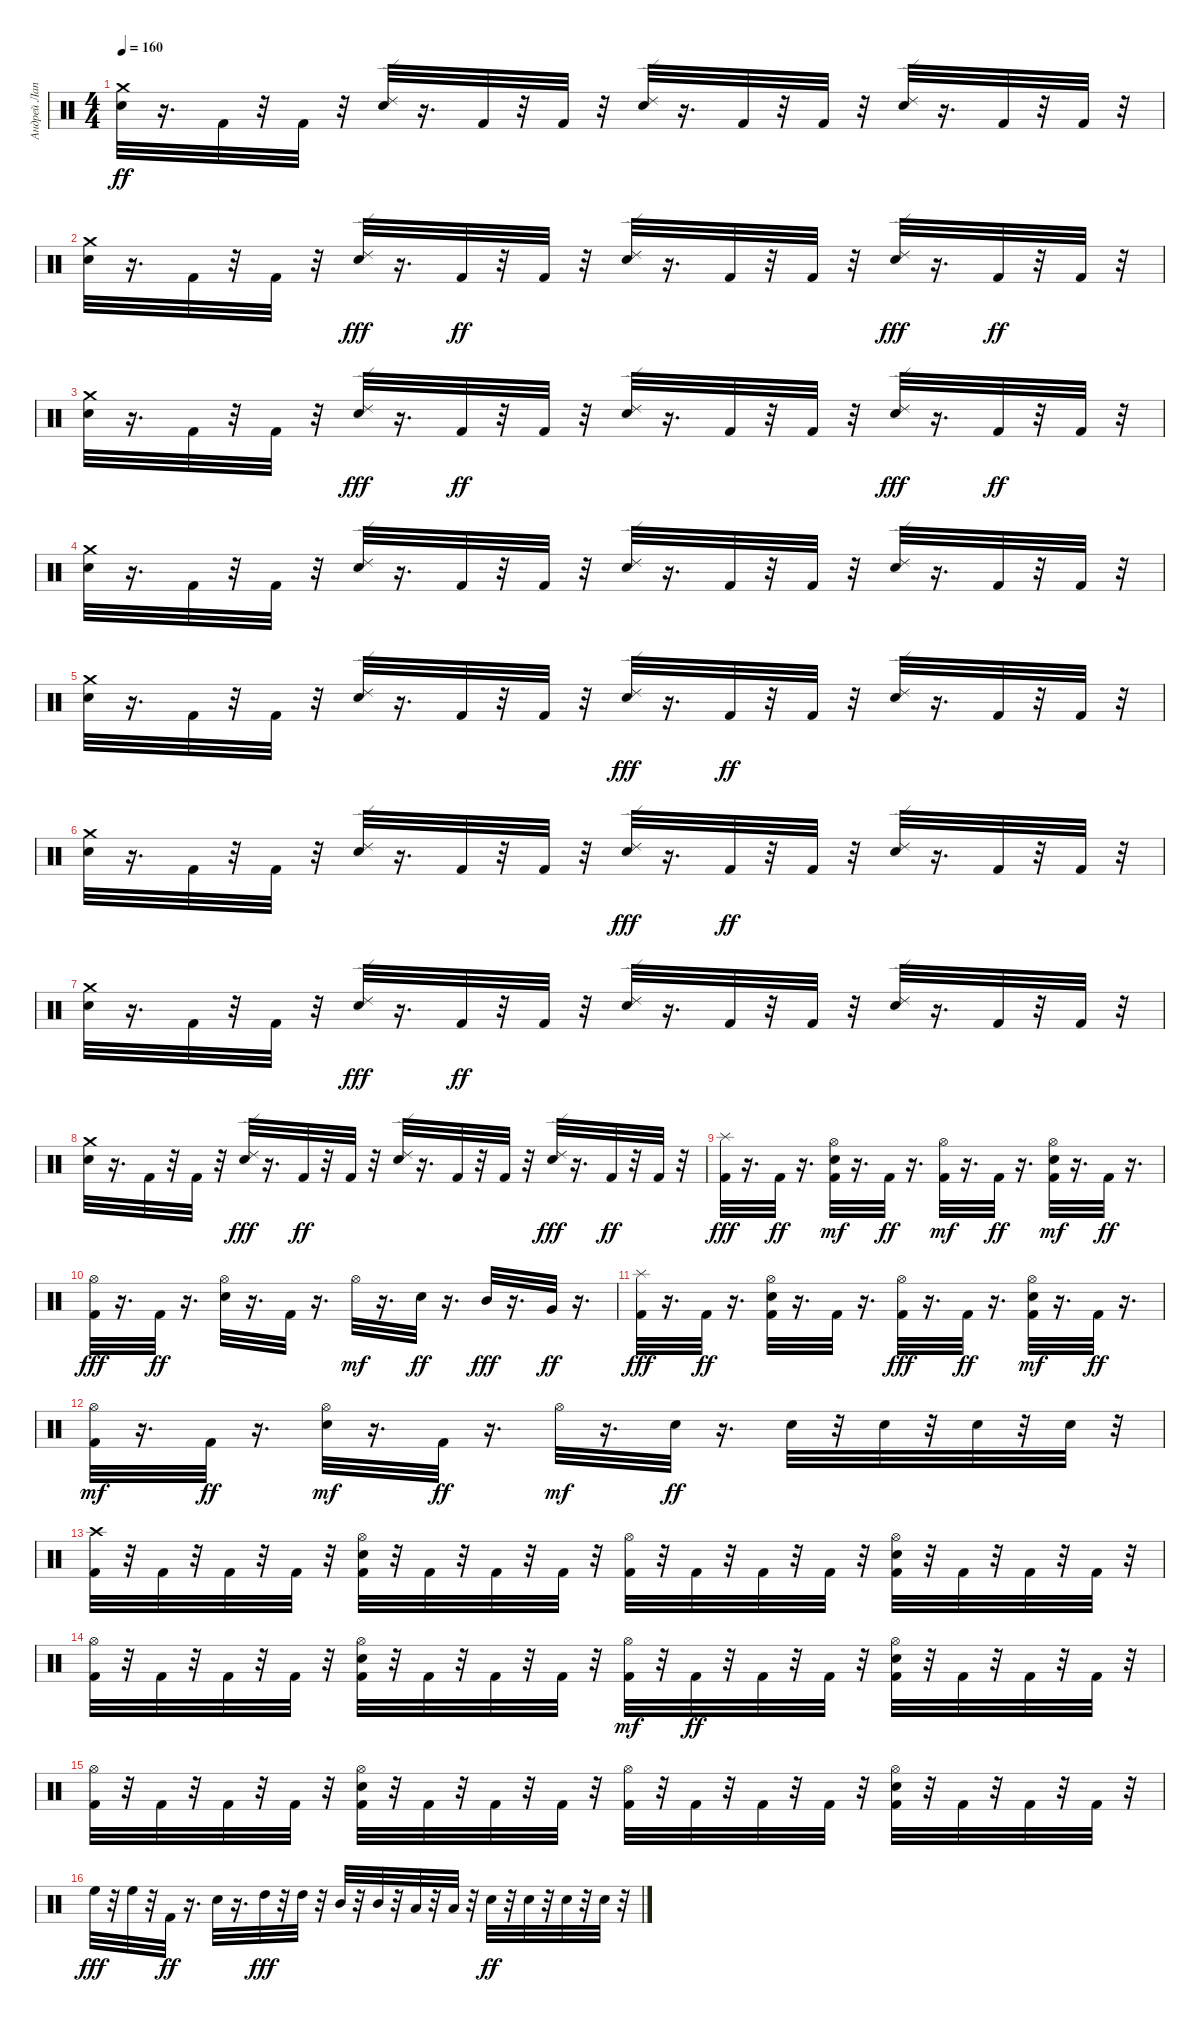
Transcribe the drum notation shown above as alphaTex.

\track ("Андрей Лаптев" "Андрей Лап") {instrument percussion}
\staff {score}
\articulation defaults
\ts (4 4)
\tempo 160
\clef neutral
\ks c
("Crash medium (hit)" "Electric Snare (hit)").32{dy ff} r.16{d} "Kick (hit) 2".32 r.32 "Kick (hit) 2".32 r.32 ("Ride (edge) 2" "Electric Snare (hit)").32 r.16{d} "Kick (hit) 2".32 r.32 "Kick (hit) 2".32 r.32 ("Ride (edge) 2" "Electric Snare (hit)").32 r.16{d} "Kick (hit) 2".32 r.32 "Kick (hit) 2".32 r.32 ("Ride (edge) 2" "Electric Snare (hit)").32 r.16{d} "Kick (hit) 2".32 r.32 "Kick (hit) 2".32 r.32 |
("Crash medium (hit)" "Electric Snare (hit)").32 r.16{d} "Kick (hit) 2".32 r.32 "Kick (hit) 2".32 r.32 ("Electric Snare (hit)" "Ride (edge) 2").32{dy fff} r.16{d} "Kick (hit) 2".32{dy ff} r.32 "Kick (hit) 2".32 r.32 ("Ride (edge) 2" "Electric Snare (hit)").32 r.16{d} "Kick (hit) 2".32 r.32 "Kick (hit) 2".32 r.32 ("Electric Snare (hit)" "Ride (edge) 2").32{dy fff} r.16{d} "Kick (hit) 2".32{dy ff} r.32 "Kick (hit) 2".32 r.32 |
("Crash medium (hit)" "Electric Snare (hit)").32 r.16{d} "Kick (hit) 2".32 r.32 "Kick (hit) 2".32 r.32 ("Electric Snare (hit)" "Ride (edge) 2").32{dy fff} r.16{d} "Kick (hit) 2".32{dy ff} r.32 "Kick (hit) 2".32 r.32 ("Ride (edge) 2" "Electric Snare (hit)").32 r.16{d} "Kick (hit) 2".32 r.32 "Kick (hit) 2".32 r.32 ("Electric Snare (hit)" "Ride (edge) 2").32{dy fff} r.16{d} "Kick (hit) 2".32{dy ff} r.32 "Kick (hit) 2".32 r.32 |
("Electric Snare (hit)" "Crash medium (hit)").32 r.16{d} "Kick (hit) 2".32 r.32 "Kick (hit) 2".32 r.32 ("Ride (edge) 2" "Electric Snare (hit)").32 r.16{d} "Kick (hit) 2".32 r.32 "Kick (hit) 2".32 r.32 ("Ride (edge) 2" "Electric Snare (hit)").32 r.16{d} "Kick (hit) 2".32 r.32 "Kick (hit) 2".32 r.32 ("Ride (edge) 2" "Electric Snare (hit)").32 r.16{d} "Kick (hit) 2".32 r.32 "Kick (hit) 2".32 r.32 |
("Electric Snare (hit)" "Crash medium (hit)").32 r.16{d} "Kick (hit) 2".32 r.32 "Kick (hit) 2".32 r.32 ("Ride (edge) 2" "Electric Snare (hit)").32 r.16{d} "Kick (hit) 2".32 r.32 "Kick (hit) 2".32 r.32 ("Electric Snare (hit)" "Ride (edge) 2").32{dy fff} r.16{d} "Kick (hit) 2".32{dy ff} r.32 "Kick (hit) 2".32 r.32 ("Ride (edge) 2" "Electric Snare (hit)").32 r.16{d} "Kick (hit) 2".32 r.32 "Kick (hit) 2".32 r.32 |
("Electric Snare (hit)" "Crash medium (hit)").32 r.16{d} "Kick (hit) 2".32 r.32 "Kick (hit) 2".32 r.32 ("Ride (edge) 2" "Electric Snare (hit)").32 r.16{d} "Kick (hit) 2".32 r.32 "Kick (hit) 2".32 r.32 ("Electric Snare (hit)" "Ride (edge) 2").32{dy fff} r.16{d} "Kick (hit) 2".32{dy ff} r.32 "Kick (hit) 2".32 r.32 ("Ride (edge) 2" "Electric Snare (hit)").32 r.16{d} "Kick (hit) 2".32 r.32 "Kick (hit) 2".32 r.32 |
("Electric Snare (hit)" "Crash medium (hit)").32 r.16{d} "Kick (hit) 2".32 r.32 "Kick (hit) 2".32 r.32 ("Electric Snare (hit)" "Ride (edge) 2").32{dy fff} r.16{d} "Kick (hit) 2".32{dy ff} r.32 "Kick (hit) 2".32 r.32 ("Ride (edge) 2" "Electric Snare (hit)").32 r.16{d} "Kick (hit) 2".32 r.32 "Kick (hit) 2".32 r.32 ("Ride (edge) 2" "Electric Snare (hit)").32 r.16{d} "Kick (hit) 2".32 r.32 "Kick (hit) 2".32 r.32 |
("Electric Snare (hit)" "Crash medium (hit)").32 r.16{d} "Kick (hit) 2".32 r.32 "Kick (hit) 2".32 r.32 ("Electric Snare (hit)" "Ride (edge) 2").32{dy fff} r.16{d} "Kick (hit) 2".32{dy ff} r.32 "Kick (hit) 2".32 r.32 ("Ride (edge) 2" "Electric Snare (hit)").32 r.16{d} "Kick (hit) 2".32 r.32 "Kick (hit) 2".32 r.32 ("Electric Snare (hit)" "Ride (edge) 2").32{dy fff} r.16{d} "Kick (hit) 2".32{dy ff} r.32 "Kick (hit) 2".32 r.32 |
("Splash (hit)" "Kick (hit) 2").32{dy fff} r.16{d} "Kick (hit) 2".32{dy ff} r.16{d} ("Kick (hit) 2" "Electric Snare (hit)" "Hi-Hat (open)").32{dy mf} r.16{d} "Kick (hit) 2".32{dy ff} r.16{d} ("Kick (hit) 2" "Hi-Hat (open)").32{dy mf} r.16{d} "Kick (hit) 2".32{dy ff} r.16{d} ("Kick (hit) 2" "Electric Snare (hit)" "Hi-Hat (open)").32{dy mf} r.16{d} "Kick (hit) 2".32{dy ff} r.16{d} |
("Hi-Hat (open)" "Kick (hit) 2").32{dy fff} r.16{d} "Kick (hit) 2".32{dy ff} r.16{d} ("Hi-Hat (open)" "Electric Snare (hit)").32 r.16{d} "Kick (hit) 2".32 r.16{d} "Hi-Hat (open)".32{dy mf} r.16{d} "Electric Snare (hit)".32{dy ff} r.16{d} "Mid Tom (hit)".32{dy fff} r.16{d} "Very Low Tom (hit)".32{dy ff} r.16{d} |
("Splash (hit)" "Kick (hit) 2").32{dy fff} r.16{d} "Kick (hit) 2".32{dy ff} r.16{d} ("Kick (hit) 2" "Hi-Hat (open)" "Electric Snare (hit)").32 r.16{d} "Kick (hit) 2".32 r.16{d} ("Hi-Hat (open)" "Kick (hit) 2").32{dy fff} r.16{d} "Kick (hit) 2".32{dy ff} r.16{d} ("Kick (hit) 2" "Electric Snare (hit)" "Hi-Hat (open)").32{dy mf} r.16{d} "Kick (hit) 2".32{dy ff} r.16{d} |
("Kick (hit) 2" "Hi-Hat (open)").32{dy mf} r.16{d} "Kick (hit) 2".32{dy ff} r.16{d} ("Electric Snare (hit)" "Hi-Hat (open)").32{dy mf} r.16{d} "Kick (hit) 2".32{dy ff} r.16{d} "Hi-Hat (open)".32{dy mf} r.16{d} "Electric Snare (hit)".32{dy ff} r.16{d} "Electric Snare (hit)".32 r.32 "Electric Snare (hit)".32 r.32 "Electric Snare (hit)".32 r.32 "Electric Snare (hit)".32 r.32 |
("Kick (hit) 2" "Crash high (hit)").32 r.32 "Kick (hit) 2".32 r.32 "Kick (hit) 2".32 r.32 "Kick (hit) 2".32 r.32 ("Electric Snare (hit)" "Hi-Hat (open)" "Kick (hit) 2").32 r.32 "Kick (hit) 2".32 r.32 "Kick (hit) 2".32 r.32 "Kick (hit) 2".32 r.32 ("Hi-Hat (open)" "Kick (hit) 2").32 r.32 "Kick (hit) 2".32 r.32 "Kick (hit) 2".32 r.32 "Kick (hit) 2".32 r.32 ("Kick (hit) 2" "Hi-Hat (open)" "Electric Snare (hit)").32 r.32 "Kick (hit) 2".32 r.32 "Kick (hit) 2".32 r.32 "Kick (hit) 2".32 r.32 |
("Hi-Hat (open)" "Kick (hit) 2").32 r.32 "Kick (hit) 2".32 r.32 "Kick (hit) 2".32 r.32 "Kick (hit) 2".32 r.32 ("Hi-Hat (open)" "Electric Snare (hit)" "Kick (hit) 2").32 r.32 "Kick (hit) 2".32 r.32 "Kick (hit) 2".32 r.32 "Kick (hit) 2".32 r.32 ("Kick (hit) 2" "Hi-Hat (open)").32{dy mf} r.32 "Kick (hit) 2".32{dy ff} r.32 "Kick (hit) 2".32 r.32 "Kick (hit) 2".32 r.32 ("Electric Snare (hit)" "Hi-Hat (open)" "Kick (hit) 2").32 r.32 "Kick (hit) 2".32 r.32 "Kick (hit) 2".32 r.32 "Kick (hit) 2".32 r.32 |
("Hi-Hat (open)" "Kick (hit) 2").32 r.32 "Kick (hit) 2".32 r.32 "Kick (hit) 2".32 r.32 "Kick (hit) 2".32 r.32 ("Hi-Hat (open)" "Electric Snare (hit)" "Kick (hit) 2").32 r.32 "Kick (hit) 2".32 r.32 "Kick (hit) 2".32 r.32 "Kick (hit) 2".32 r.32 ("Hi-Hat (open)" "Kick (hit) 2").32 r.32 "Kick (hit) 2".32 r.32 "Kick (hit) 2".32 r.32 "Kick (hit) 2".32 r.32 ("Electric Snare (hit)" "Hi-Hat (open)" "Kick (hit) 2").32 r.32 "Kick (hit) 2".32 r.32 "Kick (hit) 2".32 r.32 "Kick (hit) 2".32 r.32 |
"High Floor Tom (hit)".32{dy fff} r.32 "High Floor Tom (hit)".32 r.32 "Kick (hit) 2".32{dy ff} r.16{d} "Electric Snare (hit)".32 r.16{d} "High Tom (hit)".32{dy fff} r.32 "High Tom (hit)".32 r.32 "Mid Tom (hit)".32 r.32 "Mid Tom (hit)".32 r.32 "Low Tom (hit)".32 r.32 "Low Tom (hit)".32 r.32 "Electric Snare (hit)".32{dy ff} r.32 "Electric Snare (hit)".32 r.32 "Electric Snare (hit)".32 r.32 "Electric Snare (hit)".32 r.32
